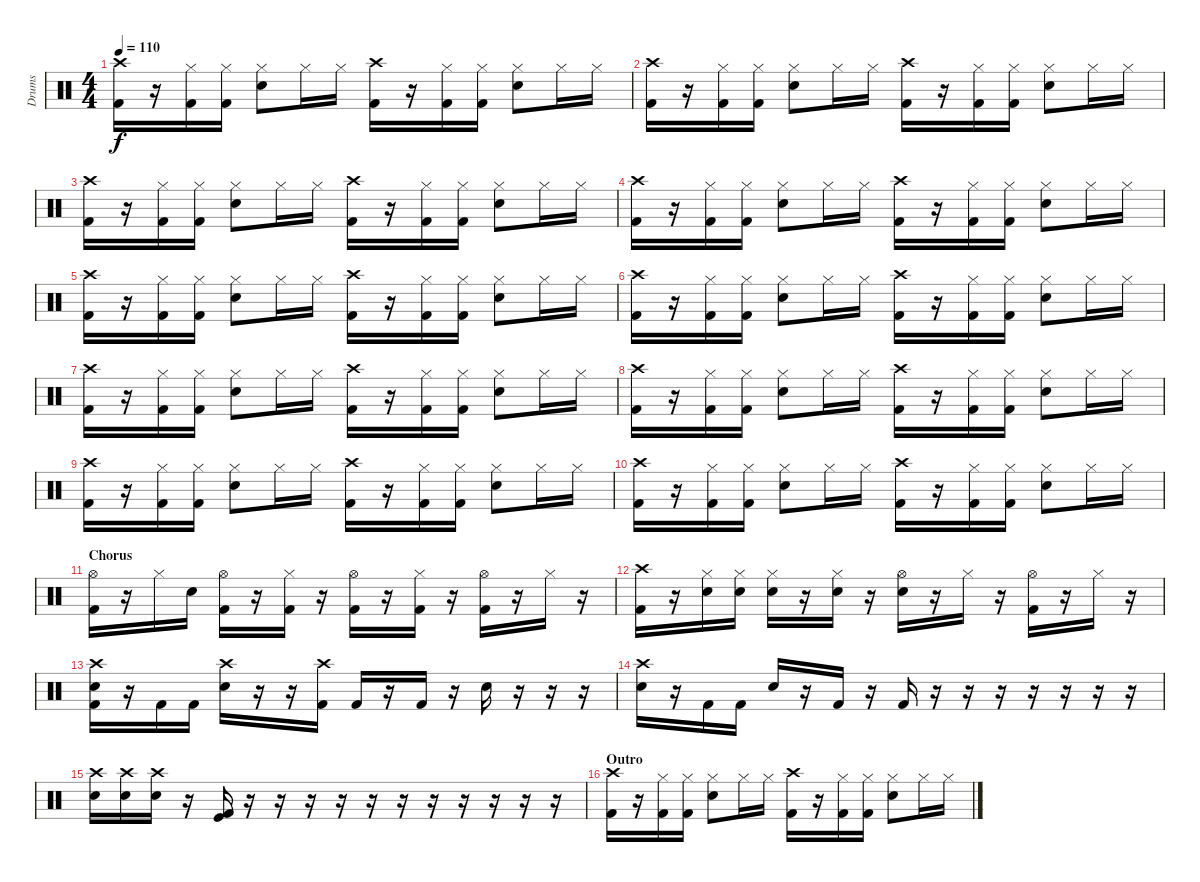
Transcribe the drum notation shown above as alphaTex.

\track ("Drums" "Drums") {instrument percussion}
\staff {score}
\articulation defaults
\ts (4 4)
\tempo 110
\clef neutral
\ks c
("Crash high (hit)" "Kick (hit) 2").16{dy f} r.16 ("Hi-Hat (closed)" "Kick (hit) 2").16 ("Hi-Hat (closed)" "Kick (hit) 2").16 ("Hi-Hat (closed)" "Snare (hit) 2").8 "Hi-Hat (closed)".16 "Hi-Hat (closed)".16 ("Crash high (hit)" "Kick (hit) 2").16 r.16 ("Hi-Hat (closed)" "Kick (hit) 2").16 ("Hi-Hat (closed)" "Kick (hit) 2").16 ("Hi-Hat (closed)" "Snare (hit) 2").8 "Hi-Hat (closed)".16 "Hi-Hat (closed)".16 |
("Crash high (hit)" "Kick (hit) 2").16 r.16 ("Hi-Hat (closed)" "Kick (hit) 2").16 ("Hi-Hat (closed)" "Kick (hit) 2").16 ("Hi-Hat (closed)" "Snare (hit) 2").8 "Hi-Hat (closed)".16 "Hi-Hat (closed)".16 ("Crash high (hit)" "Kick (hit) 2").16 r.16 ("Hi-Hat (closed)" "Kick (hit) 2").16 ("Hi-Hat (closed)" "Kick (hit) 2").16 ("Hi-Hat (closed)" "Snare (hit) 2").8 "Hi-Hat (closed)".16 "Hi-Hat (closed)".16 |
("Crash high (hit)" "Kick (hit) 2").16 r.16 ("Hi-Hat (closed)" "Kick (hit) 2").16 ("Hi-Hat (closed)" "Kick (hit) 2").16 ("Hi-Hat (closed)" "Snare (hit) 2").8 "Hi-Hat (closed)".16 "Hi-Hat (closed)".16 ("Crash high (hit)" "Kick (hit) 2").16 r.16 ("Hi-Hat (closed)" "Kick (hit) 2").16 ("Hi-Hat (closed)" "Kick (hit) 2").16 ("Hi-Hat (closed)" "Snare (hit) 2").8 "Hi-Hat (closed)".16 "Hi-Hat (closed)".16 |
("Crash high (hit)" "Kick (hit) 2").16 r.16 ("Hi-Hat (closed)" "Kick (hit) 2").16 ("Hi-Hat (closed)" "Kick (hit) 2").16 ("Hi-Hat (closed)" "Snare (hit) 2").8 "Hi-Hat (closed)".16 "Hi-Hat (closed)".16 ("Crash high (hit)" "Kick (hit) 2").16 r.16 ("Hi-Hat (closed)" "Kick (hit) 2").16 ("Hi-Hat (closed)" "Kick (hit) 2").16 ("Hi-Hat (closed)" "Snare (hit) 2").8 "Hi-Hat (closed)".16 "Hi-Hat (closed)".16 |
("Crash high (hit)" "Kick (hit) 2").16 r.16 ("Hi-Hat (closed)" "Kick (hit) 2").16 ("Hi-Hat (closed)" "Kick (hit) 2").16 ("Hi-Hat (closed)" "Snare (hit) 2").8 "Hi-Hat (closed)".16 "Hi-Hat (closed)".16 ("Crash high (hit)" "Kick (hit) 2").16 r.16 ("Hi-Hat (closed)" "Kick (hit) 2").16 ("Hi-Hat (closed)" "Kick (hit) 2").16 ("Hi-Hat (closed)" "Snare (hit) 2").8 "Hi-Hat (closed)".16 "Hi-Hat (closed)".16 |
("Crash high (hit)" "Kick (hit) 2").16 r.16 ("Hi-Hat (closed)" "Kick (hit) 2").16 ("Hi-Hat (closed)" "Kick (hit) 2").16 ("Hi-Hat (closed)" "Snare (hit) 2").8 "Hi-Hat (closed)".16 "Hi-Hat (closed)".16 ("Crash high (hit)" "Kick (hit) 2").16 r.16 ("Hi-Hat (closed)" "Kick (hit) 2").16 ("Hi-Hat (closed)" "Kick (hit) 2").16 ("Hi-Hat (closed)" "Snare (hit) 2").8 "Hi-Hat (closed)".16 "Hi-Hat (closed)".16 |
("Crash high (hit)" "Kick (hit) 2").16 r.16 ("Hi-Hat (closed)" "Kick (hit) 2").16 ("Hi-Hat (closed)" "Kick (hit) 2").16 ("Hi-Hat (closed)" "Snare (hit) 2").8 "Hi-Hat (closed)".16 "Hi-Hat (closed)".16 ("Crash high (hit)" "Kick (hit) 2").16 r.16 ("Hi-Hat (closed)" "Kick (hit) 2").16 ("Hi-Hat (closed)" "Kick (hit) 2").16 ("Hi-Hat (closed)" "Snare (hit) 2").8 "Hi-Hat (closed)".16 "Hi-Hat (closed)".16 |
("Crash high (hit)" "Kick (hit) 2").16 r.16 ("Hi-Hat (closed)" "Kick (hit) 2").16 ("Hi-Hat (closed)" "Kick (hit) 2").16 ("Hi-Hat (closed)" "Snare (hit) 2").8 "Hi-Hat (closed)".16 "Hi-Hat (closed)".16 ("Crash high (hit)" "Kick (hit) 2").16 r.16 ("Hi-Hat (closed)" "Kick (hit) 2").16 ("Hi-Hat (closed)" "Kick (hit) 2").16 ("Hi-Hat (closed)" "Snare (hit) 2").8 "Hi-Hat (closed)".16 "Hi-Hat (closed)".16 |
("Crash high (hit)" "Kick (hit) 2").16 r.16 ("Hi-Hat (closed)" "Kick (hit) 2").16 ("Hi-Hat (closed)" "Kick (hit) 2").16 ("Hi-Hat (closed)" "Snare (hit) 2").8 "Hi-Hat (closed)".16 "Hi-Hat (closed)".16 ("Crash high (hit)" "Kick (hit) 2").16 r.16 ("Hi-Hat (closed)" "Kick (hit) 2").16 ("Hi-Hat (closed)" "Kick (hit) 2").16 ("Hi-Hat (closed)" "Snare (hit) 2").8 "Hi-Hat (closed)".16 "Hi-Hat (closed)".16 |
("Crash high (hit)" "Kick (hit) 2").16 r.16 ("Hi-Hat (closed)" "Kick (hit) 2").16 ("Hi-Hat (closed)" "Kick (hit) 2").16 ("Hi-Hat (closed)" "Snare (hit) 2").8 "Hi-Hat (closed)".16 "Hi-Hat (closed)".16 ("Crash high (hit)" "Kick (hit) 2").16 r.16 ("Hi-Hat (closed)" "Kick (hit) 2").16 ("Hi-Hat (closed)" "Kick (hit) 2").16 ("Hi-Hat (closed)" "Snare (hit) 2").8 "Hi-Hat (closed)".16 "Hi-Hat (closed)".16 |
\section ("" "Chorus")
("Hi-Hat (open)" "Kick (hit) 2").16 r.16 "Hi-Hat (closed)".16 "Snare (hit) 2".16 ("Hi-Hat (open)" "Kick (hit) 2").16 r.16 ("Hi-Hat (closed)" "Kick (hit) 2").16 r.16 ("Hi-Hat (open)" "Kick (hit) 2").16 r.16 ("Hi-Hat (closed)" "Kick (hit) 2").16 r.16 ("Hi-Hat (open)" "Kick (hit) 2").16 r.16 "Hi-Hat (closed)".16 r.16 |
("Crash high (hit)" "Kick (hit) 2").16 r.16 ("Hi-Hat (closed)" "Snare (hit) 2").16 ("Hi-Hat (closed)" "Snare (hit) 2").16 ("Hi-Hat (closed)" "Snare (hit) 2").16 r.16 ("Hi-Hat (closed)" "Snare (hit) 2").16 r.16 ("Hi-Hat (open)" "Snare (hit) 2").16 r.16 "Hi-Hat (closed)".16 r.16 ("Hi-Hat (open)" "Kick (hit) 2").16 r.16 "Hi-Hat (closed)".16 r.16 |
("Crash high (hit)" "Snare (hit) 2" "Kick (hit) 2").16 r.16 "Kick (hit) 2".16 "Kick (hit) 2".16 ("Crash high (hit)" "Snare (hit) 2").16 r.16 r.16 ("Crash high (hit)" "Kick (hit) 2").16 "Kick (hit) 2".16 r.16 "Kick (hit) 2".16 r.16 "Snare (hit) 2".16 r.16 r.16 r.16 |
("Crash high (hit)" "Snare (hit) 2").16 r.16 "Kick (hit) 2".16 "Kick (hit) 2".16 "Snare (hit) 2".16 r.16 "Kick (hit) 2".16 r.16 "Kick (hit) 2".16 r.16 r.16 r.16 r.16 r.16 r.16 r.16 |
("Crash high (hit)" "Snare (hit) 2").16 ("Crash high (hit)" "Snare (hit) 2").16 ("Crash high (hit)" "Snare (hit) 2").16 r.16 ("Kick (hit)" "Kick (hit) 2").16 r.16 r.16 r.16 r.16 r.16 r.16 r.16 r.16 r.16 r.16 r.16 |
\section ("" "Outro")
("Crash high (hit)" "Kick (hit) 2").16 r.16 ("Hi-Hat (closed)" "Kick (hit) 2").16 ("Hi-Hat (closed)" "Kick (hit) 2").16 ("Hi-Hat (closed)" "Snare (hit) 2").8 "Hi-Hat (closed)".16 "Hi-Hat (closed)".16 ("Crash high (hit)" "Kick (hit) 2").16 r.16 ("Hi-Hat (closed)" "Kick (hit) 2").16 ("Hi-Hat (closed)" "Kick (hit) 2").16 ("Hi-Hat (closed)" "Snare (hit) 2").8 "Hi-Hat (closed)".16 "Hi-Hat (closed)".16
